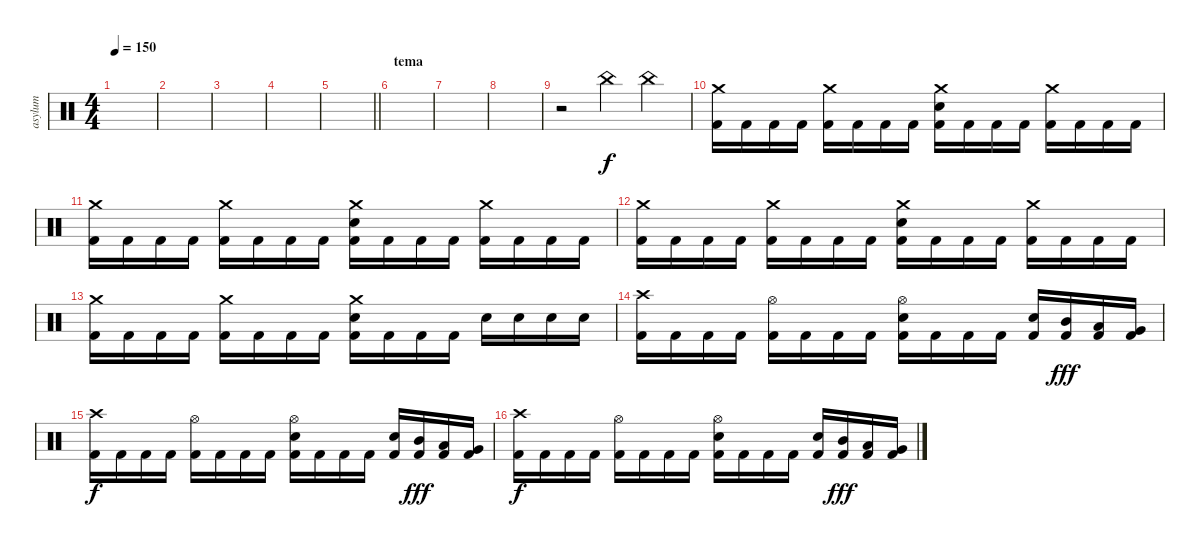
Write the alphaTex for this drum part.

\track ("asylum" "asylum") {instrument percussion}
\staff {score}
\articulation defaults
\ts (4 4)
\tempo 150
\clef neutral
\ks c
|
|
|
|
\barLineRight lightlight
|
\section ("" "tema")
|
|
|
r.2 "China (hit)".4 "China (hit)".4 |
("Crash medium (hit)" "Kick (hit) 2").16 "Kick (hit) 2".16 "Kick (hit) 2".16 "Kick (hit) 2".16 ("Crash medium (hit)" "Kick (hit) 2").16 "Kick (hit) 2".16 "Kick (hit) 2".16 "Kick (hit) 2".16 ("Crash medium (hit)" "Electric Snare (hit)" "Kick (hit) 2").16 "Kick (hit) 2".16 "Kick (hit) 2".16 "Kick (hit) 2".16 ("Crash medium (hit)" "Kick (hit) 2").16 "Kick (hit) 2".16 "Kick (hit) 2".16 "Kick (hit) 2".16 |
("Crash medium (hit)" "Kick (hit) 2").16 "Kick (hit) 2".16 "Kick (hit) 2".16 "Kick (hit) 2".16 ("Crash medium (hit)" "Kick (hit) 2").16 "Kick (hit) 2".16 "Kick (hit) 2".16 "Kick (hit) 2".16 ("Crash medium (hit)" "Electric Snare (hit)" "Kick (hit) 2").16 "Kick (hit) 2".16 "Kick (hit) 2".16 "Kick (hit) 2".16 ("Crash medium (hit)" "Kick (hit) 2").16 "Kick (hit) 2".16 "Kick (hit) 2".16 "Kick (hit) 2".16 |
("Crash medium (hit)" "Kick (hit) 2").16 "Kick (hit) 2".16 "Kick (hit) 2".16 "Kick (hit) 2".16 ("Crash medium (hit)" "Kick (hit) 2").16 "Kick (hit) 2".16 "Kick (hit) 2".16 "Kick (hit) 2".16 ("Crash medium (hit)" "Electric Snare (hit)" "Kick (hit) 2").16 "Kick (hit) 2".16 "Kick (hit) 2".16 "Kick (hit) 2".16 ("Crash medium (hit)" "Kick (hit) 2").16 "Kick (hit) 2".16 "Kick (hit) 2".16 "Kick (hit) 2".16 |
("Crash medium (hit)" "Kick (hit) 2").16 "Kick (hit) 2".16 "Kick (hit) 2".16 "Kick (hit) 2".16 ("Crash medium (hit)" "Kick (hit) 2").16 "Kick (hit) 2".16 "Kick (hit) 2".16 "Kick (hit) 2".16 ("Crash medium (hit)" "Electric Snare (hit)" "Kick (hit) 2").16 "Kick (hit) 2".16 "Kick (hit) 2".16 "Kick (hit) 2".16 "Electric Snare (hit)".16 "Electric Snare (hit)".16 "Electric Snare (hit)".16 "Electric Snare (hit)".16 |
("Crash high (hit)" "Kick (hit) 2").16 "Kick (hit) 2".16 "Kick (hit) 2".16 "Kick (hit) 2".16 ("Hi-Hat (open)" "Kick (hit) 2").16 "Kick (hit) 2".16 "Kick (hit) 2".16 "Kick (hit) 2".16 ("Hi-Hat (open)" "Electric Snare (hit)" "Kick (hit) 2").16 "Kick (hit) 2".16 "Kick (hit) 2".16 "Kick (hit) 2".16 ("Electric Snare (hit)" "Kick (hit) 2").16 ("Mid Tom (hit)" "Kick (hit) 2").16{dy fff} ("Low Tom (hit)" "Kick (hit) 2").16 ("Very Low Tom (hit)" "Kick (hit) 2").16 |
("Crash high (hit)" "Kick (hit) 2").16{dy f} "Kick (hit) 2".16 "Kick (hit) 2".16 "Kick (hit) 2".16 ("Hi-Hat (open)" "Kick (hit) 2").16 "Kick (hit) 2".16 "Kick (hit) 2".16 "Kick (hit) 2".16 ("Hi-Hat (open)" "Electric Snare (hit)" "Kick (hit) 2").16 "Kick (hit) 2".16 "Kick (hit) 2".16 "Kick (hit) 2".16 ("Electric Snare (hit)" "Kick (hit) 2").16 ("Mid Tom (hit)" "Kick (hit) 2").16{dy fff} ("Low Tom (hit)" "Kick (hit) 2").16 ("Very Low Tom (hit)" "Kick (hit) 2").16 |
("Crash high (hit)" "Kick (hit) 2").16{dy f} "Kick (hit) 2".16 "Kick (hit) 2".16 "Kick (hit) 2".16 ("Hi-Hat (open)" "Kick (hit) 2").16 "Kick (hit) 2".16 "Kick (hit) 2".16 "Kick (hit) 2".16 ("Hi-Hat (open)" "Electric Snare (hit)" "Kick (hit) 2").16 "Kick (hit) 2".16 "Kick (hit) 2".16 "Kick (hit) 2".16 ("Electric Snare (hit)" "Kick (hit) 2").16 ("Mid Tom (hit)" "Kick (hit) 2").16{dy fff} ("Low Tom (hit)" "Kick (hit) 2").16 ("Very Low Tom (hit)" "Kick (hit) 2").16
